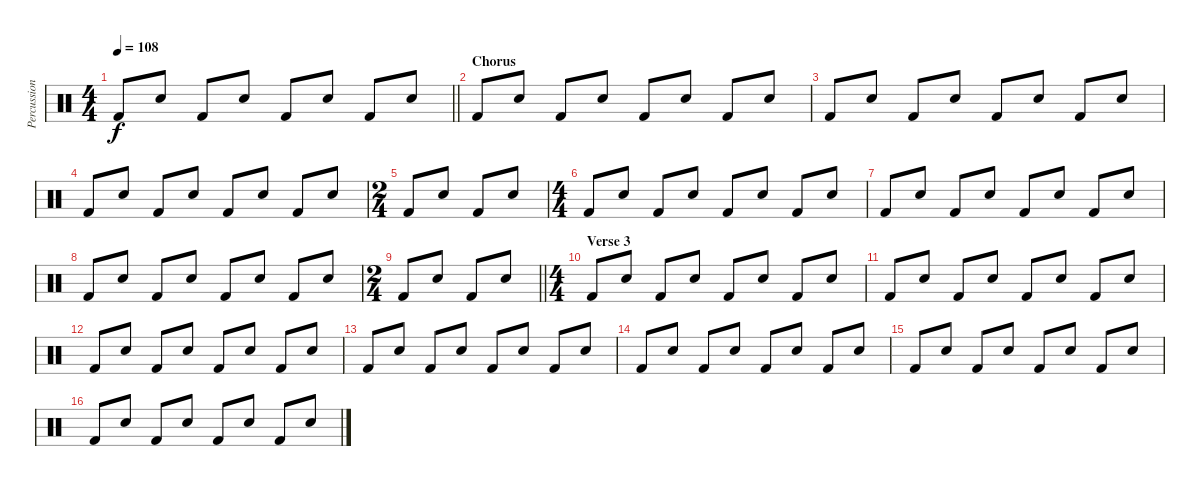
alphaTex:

\track ("Percussion" "Percussion") {instrument percussion}
\staff {score}
\articulation defaults
\ts (4 4)
\tempo 108
\clef neutral
\barLineRight lightlight
\ks c "Kick (hit) 2".8{dy f} "Snare (hit) 2".8 "Kick (hit) 2".8 "Snare (hit) 2".8 "Kick (hit) 2".8 "Snare (hit) 2".8 "Kick (hit) 2".8 "Snare (hit) 2".8
|
\section ("" "Chorus")
"Kick (hit) 2".8 "Snare (hit) 2".8 "Kick (hit) 2".8 "Snare (hit) 2".8 "Kick (hit) 2".8 "Snare (hit) 2".8 "Kick (hit) 2".8 "Snare (hit) 2".8 |
"Kick (hit) 2".8 "Snare (hit) 2".8 "Kick (hit) 2".8 "Snare (hit) 2".8 "Kick (hit) 2".8 "Snare (hit) 2".8 "Kick (hit) 2".8 "Snare (hit) 2".8 |
"Kick (hit) 2".8 "Snare (hit) 2".8 "Kick (hit) 2".8 "Snare (hit) 2".8 "Kick (hit) 2".8 "Snare (hit) 2".8 "Kick (hit) 2".8 "Snare (hit) 2".8 |
\ts (2 4)
"Kick (hit) 2".8 "Snare (hit) 2".8 "Kick (hit) 2".8 "Snare (hit) 2".8 |
\ts (4 4)
"Kick (hit) 2".8 "Snare (hit) 2".8 "Kick (hit) 2".8 "Snare (hit) 2".8 "Kick (hit) 2".8 "Snare (hit) 2".8 "Kick (hit) 2".8 "Snare (hit) 2".8 |
"Kick (hit) 2".8 "Snare (hit) 2".8 "Kick (hit) 2".8 "Snare (hit) 2".8 "Kick (hit) 2".8 "Snare (hit) 2".8 "Kick (hit) 2".8 "Snare (hit) 2".8 |
"Kick (hit) 2".8 "Snare (hit) 2".8 "Kick (hit) 2".8 "Snare (hit) 2".8 "Kick (hit) 2".8 "Snare (hit) 2".8 "Kick (hit) 2".8 "Snare (hit) 2".8 |
\ts (2 4)
\barLineRight lightlight "Kick (hit) 2".8 "Snare (hit) 2".8 "Kick (hit) 2".8 "Snare (hit) 2".8
|
\ts (4 4)
\section ("" "Verse 3")
"Kick (hit) 2".8 "Snare (hit) 2".8 "Kick (hit) 2".8 "Snare (hit) 2".8 "Kick (hit) 2".8 "Snare (hit) 2".8 "Kick (hit) 2".8 "Snare (hit) 2".8 |
"Kick (hit) 2".8 "Snare (hit) 2".8 "Kick (hit) 2".8 "Snare (hit) 2".8 "Kick (hit) 2".8 "Snare (hit) 2".8 "Kick (hit) 2".8 "Snare (hit) 2".8 |
"Kick (hit) 2".8 "Snare (hit) 2".8 "Kick (hit) 2".8 "Snare (hit) 2".8 "Kick (hit) 2".8 "Snare (hit) 2".8 "Kick (hit) 2".8 "Snare (hit) 2".8 |
"Kick (hit) 2".8 "Snare (hit) 2".8 "Kick (hit) 2".8 "Snare (hit) 2".8 "Kick (hit) 2".8 "Snare (hit) 2".8 "Kick (hit) 2".8 "Snare (hit) 2".8 |
"Kick (hit) 2".8 "Snare (hit) 2".8 "Kick (hit) 2".8 "Snare (hit) 2".8 "Kick (hit) 2".8 "Snare (hit) 2".8 "Kick (hit) 2".8 "Snare (hit) 2".8 |
"Kick (hit) 2".8 "Snare (hit) 2".8 "Kick (hit) 2".8 "Snare (hit) 2".8 "Kick (hit) 2".8 "Snare (hit) 2".8 "Kick (hit) 2".8 "Snare (hit) 2".8 |
"Kick (hit) 2".8 "Snare (hit) 2".8 "Kick (hit) 2".8 "Snare (hit) 2".8 "Kick (hit) 2".8 "Snare (hit) 2".8 "Kick (hit) 2".8 "Snare (hit) 2".8
